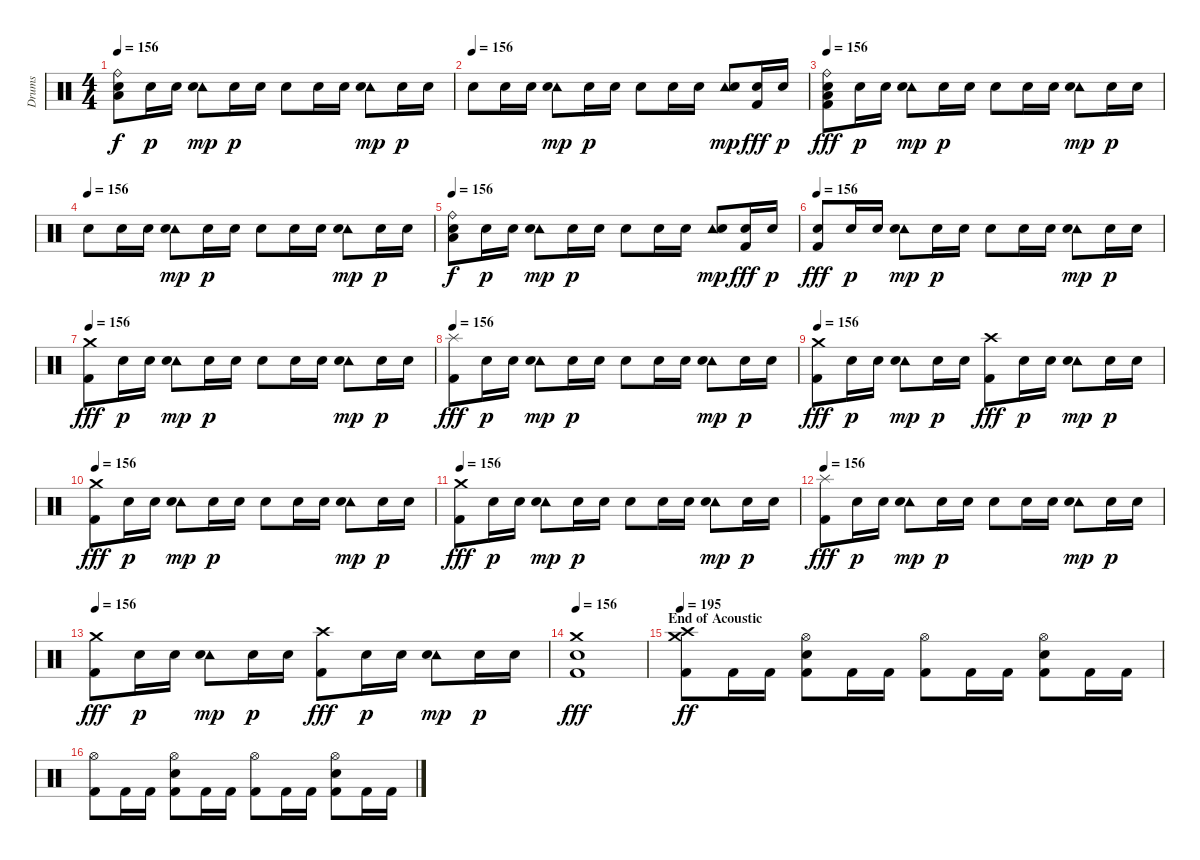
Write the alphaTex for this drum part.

\track ("Drums" "Drums") {instrument percussion}
\staff {score}
\articulation defaults
\ts (4 4)
\tempo 156
\clef neutral
\ks c
("Ride (bell)" "Low Floor Tom (hit)" "Hand Clap (hit)").8{dy f} "Snare (hit) 2".16{dy p} "Snare (hit) 2".16 ("Tambourine (hit)" "Snare (hit) 2").8{dy mp} "Snare (hit) 2".16{dy p} "Snare (hit) 2".16 "Snare (hit) 2".8 "Snare (hit) 2".16 "Snare (hit) 2".16 ("Tambourine (hit)" "Snare (hit) 2").8{dy mp} "Snare (hit) 2".16{dy p} "Snare (hit) 2".16 |
\tempo (156)
"Snare (hit) 2".8 "Snare (hit) 2".16 "Snare (hit) 2".16 ("Tambourine (hit)" "Snare (hit) 2").8{dy mp} "Snare (hit) 2".16{dy p} "Snare (hit) 2".16 "Snare (hit) 2".8 "Snare (hit) 2".16 "Snare (hit) 2".16 ("Tambourine (hit)" "Snare (hit) 2").8{dy mp} ("Snare (hit) 2" "Kick (hit) 2").16{dy fff} "Snare (hit) 2".16{dy p} |
\tempo 156
("Ride (bell)" "Low Floor Tom (hit)" "Hand Clap (hit)" "Kick (hit) 2").8{dy fff volume 10} "Snare (hit) 2".16{dy p} "Snare (hit) 2".16 ("Tambourine (hit)" "Snare (hit) 2").8{dy mp} "Snare (hit) 2".16{dy p} "Snare (hit) 2".16 "Snare (hit) 2".8 "Snare (hit) 2".16 "Snare (hit) 2".16 ("Tambourine (hit)" "Snare (hit) 2").8{dy mp} "Snare (hit) 2".16{dy p} "Snare (hit) 2".16 |
\tempo (156)
"Snare (hit) 2".8 "Snare (hit) 2".16 "Snare (hit) 2".16 ("Tambourine (hit)" "Snare (hit) 2").8{dy mp} "Snare (hit) 2".16{dy p} "Snare (hit) 2".16 "Snare (hit) 2".8 "Snare (hit) 2".16 "Snare (hit) 2".16 ("Tambourine (hit)" "Snare (hit) 2").8{dy mp} "Snare (hit) 2".16{dy p} "Snare (hit) 2".16 |
\tempo 156
("Ride (bell)" "Low Floor Tom (hit)" "Hand Clap (hit)").8{dy f} "Snare (hit) 2".16{dy p} "Snare (hit) 2".16 ("Tambourine (hit)" "Snare (hit) 2").8{dy mp} "Snare (hit) 2".16{dy p} "Snare (hit) 2".16 "Snare (hit) 2".8 "Snare (hit) 2".16 "Snare (hit) 2".16 ("Tambourine (hit)" "Snare (hit) 2").8{dy mp} ("Snare (hit) 2" "Kick (hit) 2").16{dy fff} "Snare (hit) 2".16{dy p} |
\tempo 156
("Snare (hit) 2" "Kick (hit) 2").8{dy fff} "Snare (hit) 2".16{dy p} "Snare (hit) 2".16 ("Tambourine (hit)" "Snare (hit) 2").8{dy mp} "Snare (hit) 2".16{dy p} "Snare (hit) 2".16 "Snare (hit) 2".8 "Snare (hit) 2".16 "Snare (hit) 2".16 ("Tambourine (hit)" "Snare (hit) 2").8{dy mp} "Snare (hit) 2".16{dy p} "Snare (hit) 2".16 |
\tempo 156
("Crash medium (hit)" "Kick (hit) 2").8{dy fff volume 10} "Snare (hit) 2".16{dy p} "Snare (hit) 2".16 ("Tambourine (hit)" "Snare (hit) 2").8{dy mp} "Snare (hit) 2".16{dy p} "Snare (hit) 2".16 "Snare (hit) 2".8 "Snare (hit) 2".16 "Snare (hit) 2".16 ("Tambourine (hit)" "Snare (hit) 2").8{dy mp} "Snare (hit) 2".16{dy p} "Snare (hit) 2".16 |
\tempo 156
("Splash (hit)" "Kick (hit) 2").8{dy fff} "Snare (hit) 2".16{dy p} "Snare (hit) 2".16 ("Tambourine (hit)" "Snare (hit) 2").8{dy mp} "Snare (hit) 2".16{dy p} "Snare (hit) 2".16 "Snare (hit) 2".8 "Snare (hit) 2".16 "Snare (hit) 2".16 ("Tambourine (hit)" "Snare (hit) 2").8{dy mp} "Snare (hit) 2".16{dy p} "Snare (hit) 2".16 |
\tempo 156
("Crash medium (hit)" "Kick (hit) 2").8{dy fff} "Snare (hit) 2".16{dy p} "Snare (hit) 2".16 ("Tambourine (hit)" "Snare (hit) 2").8{dy mp} "Snare (hit) 2".16{dy p} "Snare (hit) 2".16 ("Crash high (hit)" "Kick (hit) 2").8{dy fff} "Snare (hit) 2".16{dy p} "Snare (hit) 2".16 ("Tambourine (hit)" "Snare (hit) 2").8{dy mp} "Snare (hit) 2".16{dy p} "Snare (hit) 2".16 |
\tempo 156
("Crash medium (hit)" "Kick (hit) 2").8{dy fff} "Snare (hit) 2".16{dy p} "Snare (hit) 2".16 ("Tambourine (hit)" "Snare (hit) 2").8{dy mp} "Snare (hit) 2".16{dy p} "Snare (hit) 2".16 "Snare (hit) 2".8 "Snare (hit) 2".16 "Snare (hit) 2".16 ("Tambourine (hit)" "Snare (hit) 2").8{dy mp} "Snare (hit) 2".16{dy p} "Snare (hit) 2".16 |
\tempo 156
("Crash medium (hit)" "Kick (hit) 2").8{dy fff volume 10} "Snare (hit) 2".16{dy p} "Snare (hit) 2".16 ("Tambourine (hit)" "Snare (hit) 2").8{dy mp} "Snare (hit) 2".16{dy p} "Snare (hit) 2".16 "Snare (hit) 2".8 "Snare (hit) 2".16 "Snare (hit) 2".16 ("Tambourine (hit)" "Snare (hit) 2").8{dy mp} "Snare (hit) 2".16{dy p} "Snare (hit) 2".16 |
\tempo 156
("Splash (hit)" "Kick (hit) 2").8{dy fff} "Snare (hit) 2".16{dy p} "Snare (hit) 2".16 ("Tambourine (hit)" "Snare (hit) 2").8{dy mp} "Snare (hit) 2".16{dy p} "Snare (hit) 2".16 "Snare (hit) 2".8 "Snare (hit) 2".16 "Snare (hit) 2".16 ("Tambourine (hit)" "Snare (hit) 2").8{dy mp} "Snare (hit) 2".16{dy p} "Snare (hit) 2".16 |
\tempo 156
("Crash medium (hit)" "Kick (hit) 2").8{dy fff} "Snare (hit) 2".16{dy p} "Snare (hit) 2".16 ("Tambourine (hit)" "Snare (hit) 2").8{dy mp} "Snare (hit) 2".16{dy p} "Snare (hit) 2".16 ("Crash high (hit)" "Kick (hit) 2").8{dy fff} "Snare (hit) 2".16{dy p} "Snare (hit) 2".16 ("Tambourine (hit)" "Snare (hit) 2").8{dy mp} "Snare (hit) 2".16{dy p} "Snare (hit) 2".16 |
\tempo 156
("Crash medium (hit)" "Snare (hit) 2" "Kick (hit) 2").1{dy fff} |
\section ("" "End of Acoustic")
\tempo 195
("Crash high (hit)" "Crash medium (hit)" "Kick (hit) 2").8{dy ff volume 13} "Kick (hit) 2".16 "Kick (hit) 2".16 ("Hi-Hat (open)" "Snare (hit) 2" "Kick (hit) 2").8 "Kick (hit) 2".16 "Kick (hit) 2".16 ("Hi-Hat (open)" "Kick (hit) 2").8 "Kick (hit) 2".16 "Kick (hit) 2".16 ("Hi-Hat (open)" "Snare (hit) 2" "Kick (hit) 2").8 "Kick (hit) 2".16 "Kick (hit) 2".16 |
("Hi-Hat (open)" "Kick (hit) 2").8 "Kick (hit) 2".16 "Kick (hit) 2".16 ("Hi-Hat (open)" "Snare (hit) 2" "Kick (hit) 2").8 "Kick (hit) 2".16 "Kick (hit) 2".16 ("Hi-Hat (open)" "Kick (hit) 2").8 "Kick (hit) 2".16 "Kick (hit) 2".16 ("Hi-Hat (open)" "Snare (hit) 2" "Kick (hit) 2").8 "Kick (hit) 2".16 "Kick (hit) 2".16
